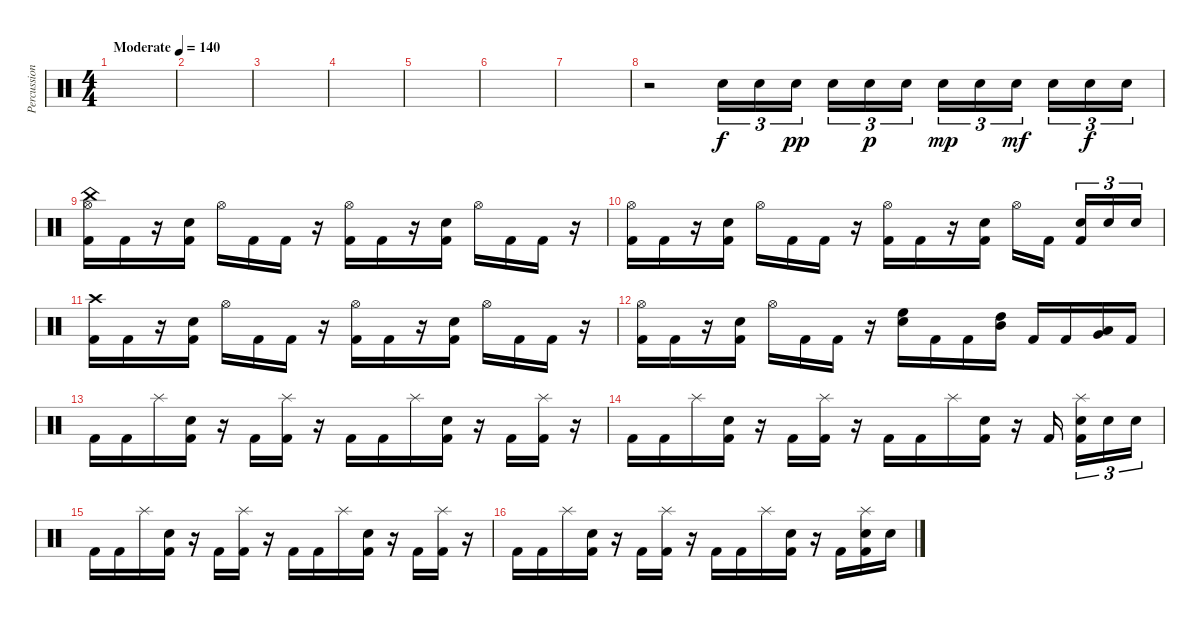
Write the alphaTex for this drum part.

\track ("Percussion" "Percussion") {instrument percussion}
\staff {score}
\articulation defaults
\ts (4 4)
\tempo (140 "Moderate")
\clef neutral
\ks c
|
|
|
|
|
|
|
r.2 "Electric Snare (hit)".16{tu (3 2)} "Electric Snare (hit)".16{tu (3 2)} "Electric Snare (hit)".16{tu (3 2) dy pp beam splitsecondary} "Electric Snare (hit)".16{tu (3 2)} "Electric Snare (hit)".16{tu (3 2) dy p} "Electric Snare (hit)".16{tu (3 2)} "Electric Snare (hit)".16{tu (3 2) dy mp} "Electric Snare (hit)".16{tu (3 2)} "Electric Snare (hit)".16{tu (3 2) dy mf beam splitsecondary} "Electric Snare (hit)".16{tu (3 2)} "Electric Snare (hit)".16{tu (3 2) dy f} "Electric Snare (hit)".16{tu (3 2)} |
("Hi-Hat (open)" "China (hit)" "Kick (hit) 2").16 "Kick (hit) 2".16 r.16 ("Electric Snare (hit)" "Kick (hit) 2").16 "Hi-Hat (open)".16 "Kick (hit) 2".16 "Kick (hit) 2".16 r.16 ("Hi-Hat (open)" "Kick (hit) 2").16 "Kick (hit) 2".16 r.16 ("Electric Snare (hit)" "Kick (hit) 2").16 "Hi-Hat (open)".16 "Kick (hit) 2".16 "Kick (hit) 2".16 r.16 |
("Hi-Hat (open)" "Kick (hit) 2").16 "Kick (hit) 2".16 r.16 ("Electric Snare (hit)" "Kick (hit) 2").16 "Hi-Hat (open)".16 "Kick (hit) 2".16 "Kick (hit) 2".16 r.16 ("Hi-Hat (open)" "Kick (hit) 2").16 "Kick (hit) 2".16 r.16 ("Electric Snare (hit)" "Kick (hit) 2").16 "Hi-Hat (open)".16 "Kick (hit) 2".16{beam splitsecondary} ("Electric Snare (hit)" "Kick (hit) 2").16{tu (3 2)} "Electric Snare (hit)".16{tu (3 2)} "Electric Snare (hit)".16{tu (3 2)} |
("Crash high (hit)" "Kick (hit) 2").16 "Kick (hit) 2".16 r.16 ("Electric Snare (hit)" "Kick (hit) 2").16 "Hi-Hat (open)".16 "Kick (hit) 2".16 "Kick (hit) 2".16 r.16 ("Hi-Hat (open)" "Kick (hit) 2").16 "Kick (hit) 2".16 r.16 ("Electric Snare (hit)" "Kick (hit) 2").16 "Hi-Hat (open)".16 "Kick (hit) 2".16 "Kick (hit) 2".16 r.16 |
("Hi-Hat (open)" "Kick (hit) 2").16 "Kick (hit) 2".16 r.16 ("Electric Snare (hit)" "Kick (hit) 2").16 "Hi-Hat (open)".16 "Kick (hit) 2".16 "Kick (hit) 2".16 r.16 ("Electric Snare (hit)" "High Floor Tom (hit)").16{bu 120} "Kick (hit) 2".16 "Kick (hit) 2".16 ("High Tom (hit)" "Mid Tom (hit)").16{bu 120} "Kick (hit) 2".16 "Kick (hit) 2".16 ("Low Tom (hit)" "Very Low Tom (hit)").16{bu 120} "Kick (hit) 2".16 |
"Kick (hit) 2".16 "Kick (hit) 2".16 "Splash (hit)".16 ("Electric Snare (hit)" "Kick (hit) 2").16 r.16 "Kick (hit) 2".16 ("Splash (hit)" "Kick (hit) 2").16 r.16 "Kick (hit) 2".16 "Kick (hit) 2".16 "Splash (hit)".16 ("Electric Snare (hit)" "Kick (hit) 2").16 r.16 "Kick (hit) 2".16 ("Splash (hit)" "Kick (hit) 2").16 r.16 |
"Kick (hit) 2".16 "Kick (hit) 2".16 "Splash (hit)".16 ("Electric Snare (hit)" "Kick (hit) 2").16 r.16 "Kick (hit) 2".16 ("Splash (hit)" "Kick (hit) 2").16 r.16 "Kick (hit) 2".16 "Kick (hit) 2".16 "Splash (hit)".16 ("Electric Snare (hit)" "Kick (hit) 2").16 r.16 "Kick (hit) 2".16{beam splitsecondary} ("Splash (hit)" "Electric Snare (hit)" "Kick (hit) 2").16{tu (3 2)} "Electric Snare (hit)".16{tu (3 2)} "Electric Snare (hit)".16{tu (3 2)} |
"Kick (hit) 2".16 "Kick (hit) 2".16 "Splash (hit)".16 ("Electric Snare (hit)" "Kick (hit) 2").16 r.16 "Kick (hit) 2".16 ("Splash (hit)" "Kick (hit) 2").16 r.16 "Kick (hit) 2".16 "Kick (hit) 2".16 "Splash (hit)".16 ("Electric Snare (hit)" "Kick (hit) 2").16 r.16 "Kick (hit) 2".16 ("Splash (hit)" "Kick (hit) 2").16 r.16 |
"Kick (hit) 2".16 "Kick (hit) 2".16 "Splash (hit)".16 ("Electric Snare (hit)" "Kick (hit) 2").16 r.16 "Kick (hit) 2".16 ("Splash (hit)" "Kick (hit) 2").16 r.16 "Kick (hit) 2".16 "Kick (hit) 2".16 "Splash (hit)".16 ("Electric Snare (hit)" "Kick (hit) 2").16 r.16 "Kick (hit) 2".16 ("Splash (hit)" "Electric Snare (hit)" "Kick (hit) 2").16 "Electric Snare (hit)".16
